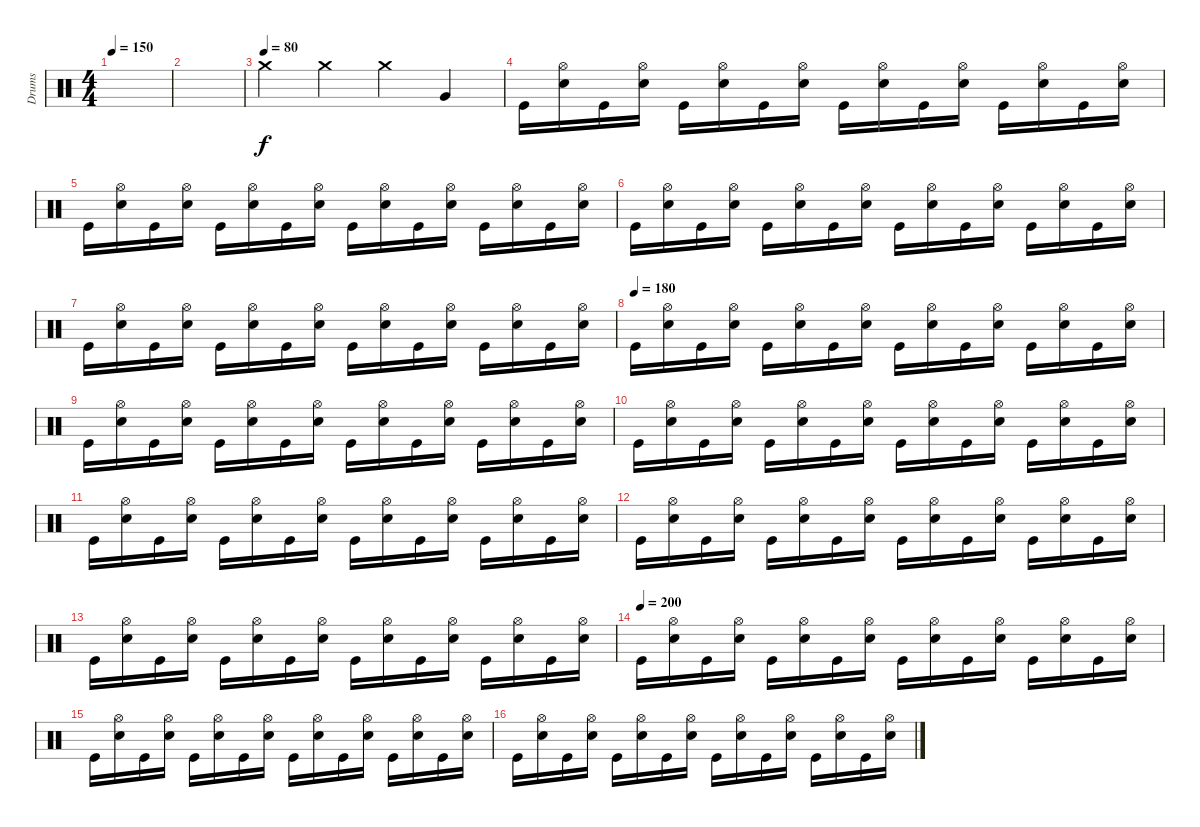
\track ("Drums" "Drums") {instrument percussion}
\staff {score}
\articulation defaults
\ts (4 4)
\tempo 150
\clef neutral
\ks c
|
|
\tempo (80)
"Crash medium (hit)".4 "Crash medium (hit)".4 "Crash medium (hit)".4 "Very Low Tom (hit)".4 |
"Kick (hit)".16 ("Hi-Hat (open)" "Electric Snare (hit)").16 "Kick (hit)".16 ("Hi-Hat (open)" "Electric Snare (hit)").16 "Kick (hit)".16 ("Hi-Hat (open)" "Electric Snare (hit)").16 "Kick (hit)".16 ("Hi-Hat (open)" "Electric Snare (hit)").16 "Kick (hit)".16 ("Hi-Hat (open)" "Electric Snare (hit)").16 "Kick (hit)".16 ("Hi-Hat (open)" "Electric Snare (hit)").16 "Kick (hit)".16 ("Hi-Hat (open)" "Electric Snare (hit)").16 "Kick (hit)".16 ("Hi-Hat (open)" "Electric Snare (hit)").16 |
"Kick (hit)".16 ("Hi-Hat (open)" "Electric Snare (hit)").16 "Kick (hit)".16 ("Hi-Hat (open)" "Electric Snare (hit)").16 "Kick (hit)".16 ("Hi-Hat (open)" "Electric Snare (hit)").16 "Kick (hit)".16 ("Hi-Hat (open)" "Electric Snare (hit)").16 "Kick (hit)".16 ("Hi-Hat (open)" "Electric Snare (hit)").16 "Kick (hit)".16 ("Hi-Hat (open)" "Electric Snare (hit)").16 "Kick (hit)".16 ("Hi-Hat (open)" "Electric Snare (hit)").16 "Kick (hit)".16 ("Hi-Hat (open)" "Electric Snare (hit)").16 |
"Kick (hit)".16 ("Hi-Hat (open)" "Electric Snare (hit)").16 "Kick (hit)".16 ("Hi-Hat (open)" "Electric Snare (hit)").16 "Kick (hit)".16 ("Hi-Hat (open)" "Electric Snare (hit)").16 "Kick (hit)".16 ("Hi-Hat (open)" "Electric Snare (hit)").16 "Kick (hit)".16 ("Hi-Hat (open)" "Electric Snare (hit)").16 "Kick (hit)".16 ("Hi-Hat (open)" "Electric Snare (hit)").16 "Kick (hit)".16 ("Hi-Hat (open)" "Electric Snare (hit)").16 "Kick (hit)".16 ("Hi-Hat (open)" "Electric Snare (hit)").16 |
"Kick (hit)".16 ("Hi-Hat (open)" "Electric Snare (hit)").16 "Kick (hit)".16 ("Hi-Hat (open)" "Electric Snare (hit)").16 "Kick (hit)".16 ("Hi-Hat (open)" "Electric Snare (hit)").16 "Kick (hit)".16 ("Hi-Hat (open)" "Electric Snare (hit)").16 "Kick (hit)".16 ("Hi-Hat (open)" "Electric Snare (hit)").16 "Kick (hit)".16 ("Hi-Hat (open)" "Electric Snare (hit)").16 "Kick (hit)".16 ("Hi-Hat (open)" "Electric Snare (hit)").16 "Kick (hit)".16 ("Hi-Hat (open)" "Electric Snare (hit)").16 |
\tempo (180)
"Kick (hit)".16 ("Hi-Hat (open)" "Electric Snare (hit)").16 "Kick (hit)".16 ("Hi-Hat (open)" "Electric Snare (hit)").16 "Kick (hit)".16 ("Hi-Hat (open)" "Electric Snare (hit)").16 "Kick (hit)".16 ("Hi-Hat (open)" "Electric Snare (hit)").16 "Kick (hit)".16 ("Hi-Hat (open)" "Electric Snare (hit)").16 "Kick (hit)".16 ("Hi-Hat (open)" "Electric Snare (hit)").16 "Kick (hit)".16 ("Hi-Hat (open)" "Electric Snare (hit)").16 "Kick (hit)".16 ("Hi-Hat (open)" "Electric Snare (hit)").16 |
"Kick (hit)".16 ("Hi-Hat (open)" "Electric Snare (hit)").16 "Kick (hit)".16 ("Hi-Hat (open)" "Electric Snare (hit)").16 "Kick (hit)".16 ("Hi-Hat (open)" "Electric Snare (hit)").16 "Kick (hit)".16 ("Hi-Hat (open)" "Electric Snare (hit)").16 "Kick (hit)".16 ("Hi-Hat (open)" "Electric Snare (hit)").16 "Kick (hit)".16 ("Hi-Hat (open)" "Electric Snare (hit)").16 "Kick (hit)".16 ("Hi-Hat (open)" "Electric Snare (hit)").16 "Kick (hit)".16 ("Hi-Hat (open)" "Electric Snare (hit)").16 |
"Kick (hit)".16 ("Hi-Hat (open)" "Electric Snare (hit)").16 "Kick (hit)".16 ("Hi-Hat (open)" "Electric Snare (hit)").16 "Kick (hit)".16 ("Hi-Hat (open)" "Electric Snare (hit)").16 "Kick (hit)".16 ("Hi-Hat (open)" "Electric Snare (hit)").16 "Kick (hit)".16 ("Hi-Hat (open)" "Electric Snare (hit)").16 "Kick (hit)".16 ("Hi-Hat (open)" "Electric Snare (hit)").16 "Kick (hit)".16 ("Hi-Hat (open)" "Electric Snare (hit)").16 "Kick (hit)".16 ("Hi-Hat (open)" "Electric Snare (hit)").16 |
"Kick (hit)".16 ("Hi-Hat (open)" "Electric Snare (hit)").16 "Kick (hit)".16 ("Hi-Hat (open)" "Electric Snare (hit)").16 "Kick (hit)".16 ("Hi-Hat (open)" "Electric Snare (hit)").16 "Kick (hit)".16 ("Hi-Hat (open)" "Electric Snare (hit)").16 "Kick (hit)".16 ("Hi-Hat (open)" "Electric Snare (hit)").16 "Kick (hit)".16 ("Hi-Hat (open)" "Electric Snare (hit)").16 "Kick (hit)".16 ("Hi-Hat (open)" "Electric Snare (hit)").16 "Kick (hit)".16 ("Hi-Hat (open)" "Electric Snare (hit)").16 |
"Kick (hit)".16 ("Hi-Hat (open)" "Electric Snare (hit)").16 "Kick (hit)".16 ("Hi-Hat (open)" "Electric Snare (hit)").16 "Kick (hit)".16 ("Hi-Hat (open)" "Electric Snare (hit)").16 "Kick (hit)".16 ("Hi-Hat (open)" "Electric Snare (hit)").16 "Kick (hit)".16 ("Hi-Hat (open)" "Electric Snare (hit)").16 "Kick (hit)".16 ("Hi-Hat (open)" "Electric Snare (hit)").16 "Kick (hit)".16 ("Hi-Hat (open)" "Electric Snare (hit)").16 "Kick (hit)".16 ("Hi-Hat (open)" "Electric Snare (hit)").16 |
"Kick (hit)".16 ("Hi-Hat (open)" "Electric Snare (hit)").16 "Kick (hit)".16 ("Hi-Hat (open)" "Electric Snare (hit)").16 "Kick (hit)".16 ("Hi-Hat (open)" "Electric Snare (hit)").16 "Kick (hit)".16 ("Hi-Hat (open)" "Electric Snare (hit)").16 "Kick (hit)".16 ("Hi-Hat (open)" "Electric Snare (hit)").16 "Kick (hit)".16 ("Hi-Hat (open)" "Electric Snare (hit)").16 "Kick (hit)".16 ("Hi-Hat (open)" "Electric Snare (hit)").16 "Kick (hit)".16 ("Hi-Hat (open)" "Electric Snare (hit)").16 |
\tempo (200)
"Kick (hit)".16 ("Hi-Hat (open)" "Electric Snare (hit)").16 "Kick (hit)".16 ("Hi-Hat (open)" "Electric Snare (hit)").16 "Kick (hit)".16 ("Hi-Hat (open)" "Electric Snare (hit)").16 "Kick (hit)".16 ("Hi-Hat (open)" "Electric Snare (hit)").16 "Kick (hit)".16 ("Hi-Hat (open)" "Electric Snare (hit)").16 "Kick (hit)".16 ("Hi-Hat (open)" "Electric Snare (hit)").16 "Kick (hit)".16 ("Hi-Hat (open)" "Electric Snare (hit)").16 "Kick (hit)".16 ("Hi-Hat (open)" "Electric Snare (hit)").16 |
"Kick (hit)".16 ("Hi-Hat (open)" "Electric Snare (hit)").16 "Kick (hit)".16 ("Hi-Hat (open)" "Electric Snare (hit)").16 "Kick (hit)".16 ("Hi-Hat (open)" "Electric Snare (hit)").16 "Kick (hit)".16 ("Hi-Hat (open)" "Electric Snare (hit)").16 "Kick (hit)".16 ("Hi-Hat (open)" "Electric Snare (hit)").16 "Kick (hit)".16 ("Hi-Hat (open)" "Electric Snare (hit)").16 "Kick (hit)".16 ("Hi-Hat (open)" "Electric Snare (hit)").16 "Kick (hit)".16 ("Hi-Hat (open)" "Electric Snare (hit)").16 |
"Kick (hit)".16 ("Hi-Hat (open)" "Electric Snare (hit)").16 "Kick (hit)".16 ("Hi-Hat (open)" "Electric Snare (hit)").16 "Kick (hit)".16 ("Hi-Hat (open)" "Electric Snare (hit)").16 "Kick (hit)".16 ("Hi-Hat (open)" "Electric Snare (hit)").16 "Kick (hit)".16 ("Hi-Hat (open)" "Electric Snare (hit)").16 "Kick (hit)".16 ("Hi-Hat (open)" "Electric Snare (hit)").16 "Kick (hit)".16 ("Hi-Hat (open)" "Electric Snare (hit)").16 "Kick (hit)".16 ("Hi-Hat (open)" "Electric Snare (hit)").16
